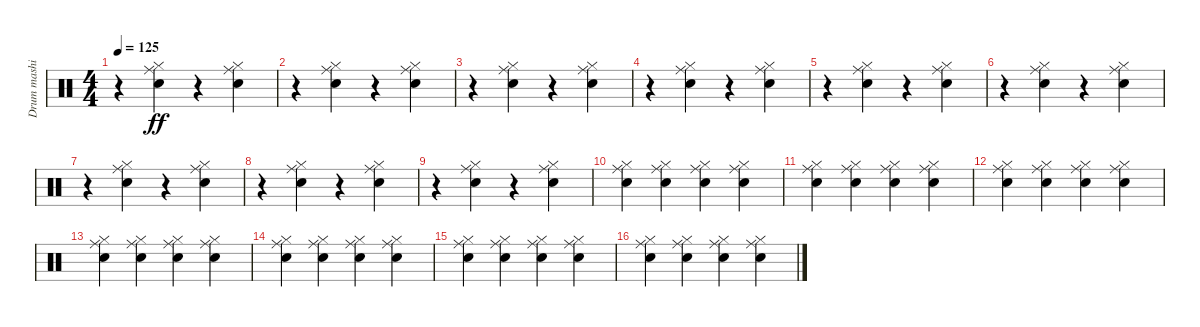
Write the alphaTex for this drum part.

\track ("Drum mashine" "Drum mashi") {instrument percussion}
\staff
\articulation defaults
\ts (4 4)
\tempo 125
\clef neutral
\ks c
r.4{dy ff} ("Ride (middle)" "Electric Snare (hit)" "Hi-Hat (closed)").4 r.4 ("Ride (middle)" "Electric Snare (hit)" "Hi-Hat (closed)").4 |
r.4 ("Ride (middle)" "Electric Snare (hit)" "Hi-Hat (closed)").4 r.4 ("Ride (middle)" "Electric Snare (hit)" "Hi-Hat (closed)").4 |
r.4 ("Ride (middle)" "Electric Snare (hit)" "Hi-Hat (closed)").4 r.4 ("Ride (middle)" "Electric Snare (hit)" "Hi-Hat (closed)").4 |
r.4 ("Ride (middle)" "Electric Snare (hit)" "Hi-Hat (closed)").4 r.4 ("Ride (middle)" "Electric Snare (hit)" "Hi-Hat (closed)").4 |
r.4 ("Ride (middle)" "Electric Snare (hit)" "Hi-Hat (closed)").4 r.4 ("Ride (middle)" "Electric Snare (hit)" "Hi-Hat (closed)").4 |
r.4 ("Ride (middle)" "Electric Snare (hit)" "Hi-Hat (closed)").4 r.4 ("Ride (middle)" "Electric Snare (hit)" "Hi-Hat (closed)").4 |
r.4 ("Ride (middle)" "Electric Snare (hit)" "Hi-Hat (closed)").4 r.4 ("Ride (middle)" "Electric Snare (hit)" "Hi-Hat (closed)").4 |
r.4 ("Ride (middle)" "Electric Snare (hit)" "Hi-Hat (closed)").4 r.4 ("Ride (middle)" "Electric Snare (hit)" "Hi-Hat (closed)").4 |
r.4 ("Ride (middle)" "Electric Snare (hit)" "Hi-Hat (closed)").4 r.4 ("Ride (middle)" "Electric Snare (hit)" "Hi-Hat (closed)").4 |
("Ride (middle)" "Electric Snare (hit)" "Hi-Hat (closed)").4 ("Ride (middle)" "Electric Snare (hit)" "Hi-Hat (closed)").4 ("Ride (middle)" "Electric Snare (hit)" "Hi-Hat (closed)").4 ("Ride (middle)" "Electric Snare (hit)" "Hi-Hat (closed)").4 |
("Ride (middle)" "Electric Snare (hit)" "Hi-Hat (closed)").4 ("Ride (middle)" "Electric Snare (hit)" "Hi-Hat (closed)").4 ("Ride (middle)" "Electric Snare (hit)" "Hi-Hat (closed)").4 ("Ride (middle)" "Electric Snare (hit)" "Hi-Hat (closed)").4 |
("Ride (middle)" "Electric Snare (hit)" "Hi-Hat (closed)").4 ("Ride (middle)" "Electric Snare (hit)" "Hi-Hat (closed)").4 ("Ride (middle)" "Electric Snare (hit)" "Hi-Hat (closed)").4 ("Ride (middle)" "Electric Snare (hit)" "Hi-Hat (closed)").4 |
("Ride (middle)" "Electric Snare (hit)" "Hi-Hat (closed)").4 ("Ride (middle)" "Electric Snare (hit)" "Hi-Hat (closed)").4 ("Ride (middle)" "Electric Snare (hit)" "Hi-Hat (closed)").4 ("Ride (middle)" "Electric Snare (hit)" "Hi-Hat (closed)").4 |
("Ride (middle)" "Electric Snare (hit)" "Hi-Hat (closed)").4 ("Ride (middle)" "Electric Snare (hit)" "Hi-Hat (closed)").4 ("Ride (middle)" "Electric Snare (hit)" "Hi-Hat (closed)").4 ("Ride (middle)" "Electric Snare (hit)" "Hi-Hat (closed)").4 |
("Ride (middle)" "Electric Snare (hit)" "Hi-Hat (closed)").4 ("Ride (middle)" "Electric Snare (hit)" "Hi-Hat (closed)").4 ("Ride (middle)" "Electric Snare (hit)" "Hi-Hat (closed)").4 ("Ride (middle)" "Electric Snare (hit)" "Hi-Hat (closed)").4 |
("Ride (middle)" "Electric Snare (hit)" "Hi-Hat (closed)").4 ("Ride (middle)" "Electric Snare (hit)" "Hi-Hat (closed)").4 ("Ride (middle)" "Electric Snare (hit)" "Hi-Hat (closed)").4 ("Ride (middle)" "Electric Snare (hit)" "Hi-Hat (closed)").4
